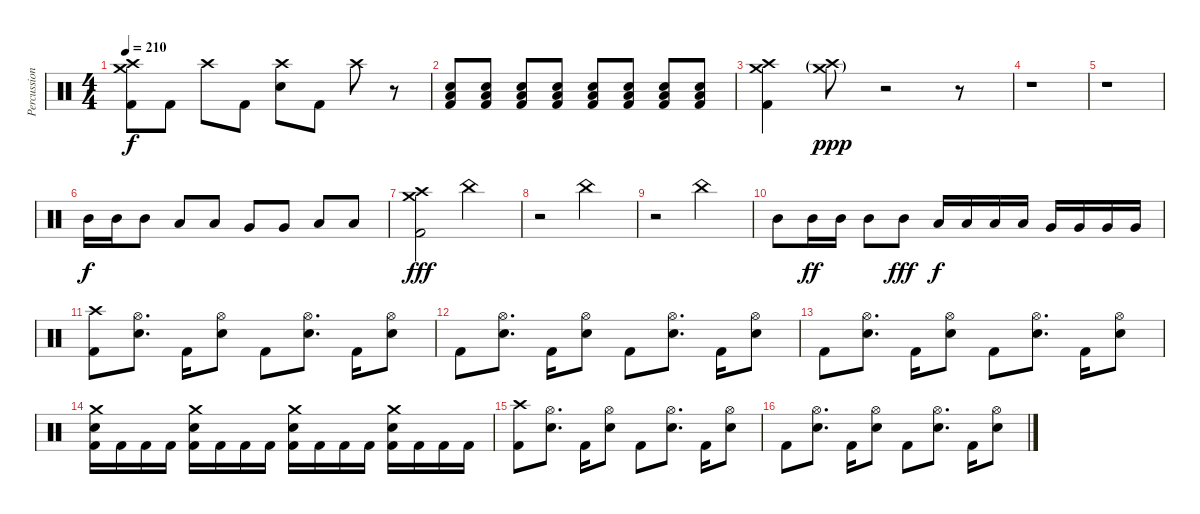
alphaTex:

\track ("Percussion" "Percussion") {instrument percussion}
\staff {score}
\articulation defaults
\ts (4 4)
\tempo 210
\clef neutral
\ks c
("Crash high (hit)" "Crash medium (hit)" "Kick (hit) 2").8{dy f} "Kick (hit) 2".8 "Crash high (hit)".8 "Kick (hit) 2".8 ("Crash high (hit)" "Electric Snare (hit)").8 "Kick (hit) 2".8 "Crash high (hit)".8 r.8 |
("Electric Snare (hit)" "Low Floor Tom (hit)" "Kick (hit) 2").8 ("Electric Snare (hit)" "Low Floor Tom (hit)" "Kick (hit) 2").8 ("Electric Snare (hit)" "Low Floor Tom (hit)" "Kick (hit) 2").8 ("Electric Snare (hit)" "Low Floor Tom (hit)" "Kick (hit) 2").8 ("Electric Snare (hit)" "Low Floor Tom (hit)" "Kick (hit) 2").8 ("Electric Snare (hit)" "Low Floor Tom (hit)" "Kick (hit) 2").8 ("Electric Snare (hit)" "Low Floor Tom (hit)" "Kick (hit) 2").8 ("Electric Snare (hit)" "Low Floor Tom (hit)" "Kick (hit) 2").8 |
("Crash medium (hit)" "Crash high (hit)" "Kick (hit) 2").4 ("Crash medium (hit)"{g} "Crash high (hit)"{g}).8{dy ppp} r.2 r.8 |
r.1 |
r.1 |
"Mid Tom (hit)".16{dy f} "Mid Tom (hit)".16 "Mid Tom (hit)".8 "Low Tom (hit)".8 "Low Tom (hit)".8 "Very Low Tom (hit)".8 "Very Low Tom (hit)".8 "Low Floor Tom (hit)".8 "Low Floor Tom (hit)".8 |
("Crash medium (hit)" "Crash high (hit)" "Kick (hit) 2").2{dy fff} "China (hit)".2 |
r.2 "China (hit)".2 |
r.2 "China (hit)".2 |
"Mid Tom (hit)".8 "Mid Tom (hit)".16{dy ff} "Mid Tom (hit)".16 "Mid Tom (hit)".8 "Mid Tom (hit)".8{dy fff} "Low Tom (hit)".16{dy f} "Low Tom (hit)".16 "Low Tom (hit)".16 "Low Tom (hit)".16 "Very Low Tom (hit)".16 "Very Low Tom (hit)".16 "Very Low Tom (hit)".16 "Very Low Tom (hit)".16 |
("Crash high (hit)" "Kick (hit) 2").8 ("Hi-Hat (open)" "Electric Snare (hit)").8{d} "Kick (hit) 2".16 ("Hi-Hat (open)" "Electric Snare (hit)").8 "Kick (hit) 2".8 ("Hi-Hat (open)" "Electric Snare (hit)").8{d} "Kick (hit) 2".16 ("Hi-Hat (open)" "Electric Snare (hit)").8 |
"Kick (hit) 2".8 ("Hi-Hat (open)" "Electric Snare (hit)").8{d} "Kick (hit) 2".16 ("Hi-Hat (open)" "Electric Snare (hit)").8 "Kick (hit) 2".8 ("Hi-Hat (open)" "Electric Snare (hit)").8{d} "Kick (hit) 2".16 ("Hi-Hat (open)" "Electric Snare (hit)").8 |
"Kick (hit) 2".8 ("Hi-Hat (open)" "Electric Snare (hit)").8{d} "Kick (hit) 2".16 ("Hi-Hat (open)" "Electric Snare (hit)").8 "Kick (hit) 2".8 ("Hi-Hat (open)" "Electric Snare (hit)").8{d} "Kick (hit) 2".16 ("Hi-Hat (open)" "Electric Snare (hit)").8 |
("Crash medium (hit)" "Electric Snare (hit)" "Kick (hit) 2").16 "Kick (hit) 2".16 "Kick (hit) 2".16 "Kick (hit) 2".16 ("Crash medium (hit)" "Electric Snare (hit)" "Kick (hit) 2").16 "Kick (hit) 2".16 "Kick (hit) 2".16 "Kick (hit) 2".16 ("Crash medium (hit)" "Electric Snare (hit)" "Kick (hit) 2").16 "Kick (hit) 2".16 "Kick (hit) 2".16 "Kick (hit) 2".16 ("Crash medium (hit)" "Electric Snare (hit)" "Kick (hit) 2").16 "Kick (hit) 2".16 "Kick (hit) 2".16 "Kick (hit) 2".16 |
("Crash high (hit)" "Kick (hit) 2").8 ("Hi-Hat (open)" "Electric Snare (hit)").8{d} "Kick (hit) 2".16 ("Hi-Hat (open)" "Electric Snare (hit)").8 "Kick (hit) 2".8 ("Hi-Hat (open)" "Electric Snare (hit)").8{d} "Kick (hit) 2".16 ("Hi-Hat (open)" "Electric Snare (hit)").8 |
"Kick (hit) 2".8 ("Hi-Hat (open)" "Electric Snare (hit)").8{d} "Kick (hit) 2".16 ("Hi-Hat (open)" "Electric Snare (hit)").8 "Kick (hit) 2".8 ("Hi-Hat (open)" "Electric Snare (hit)").8{d} "Kick (hit) 2".16 ("Hi-Hat (open)" "Electric Snare (hit)").8
